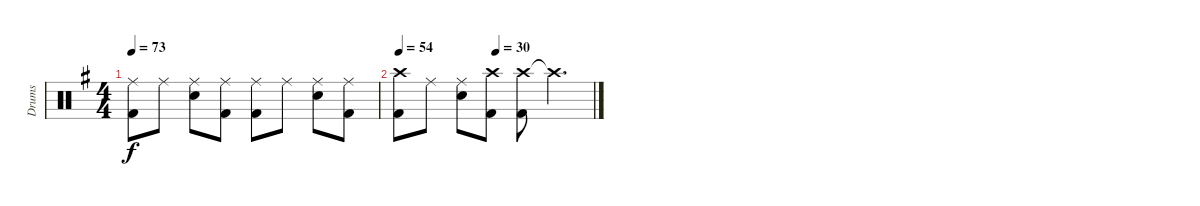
\track ("Drums" "Drums") {instrument percussion}
\staff {score}
\articulation defaults
\ts (4 4)
\tempo 73
\clef neutral
\ks eminor
("Ride (middle)" "Kick (hit) 2").8{dy f} "Ride (middle)".8 ("Ride (middle)" "Electric Snare (hit)").8 ("Ride (middle)" "Kick (hit) 2").8 ("Ride (middle)" "Kick (hit) 2").8 "Ride (middle)".8 ("Ride (middle)" "Electric Snare (hit)").8 ("Ride (middle)" "Kick (hit) 2").8 |
\tempo 54
\tempo (30 0.5)
("Crash high (hit)" "Kick (hit) 2").8 "Ride (middle)".8 ("Ride (middle)" "Electric Snare (hit)").8 ("Crash high (hit)" "Kick (hit) 2").8 ("Crash high (hit)" "Kick (hit) 2").8 "Crash high (hit)"{t}.4{d}
